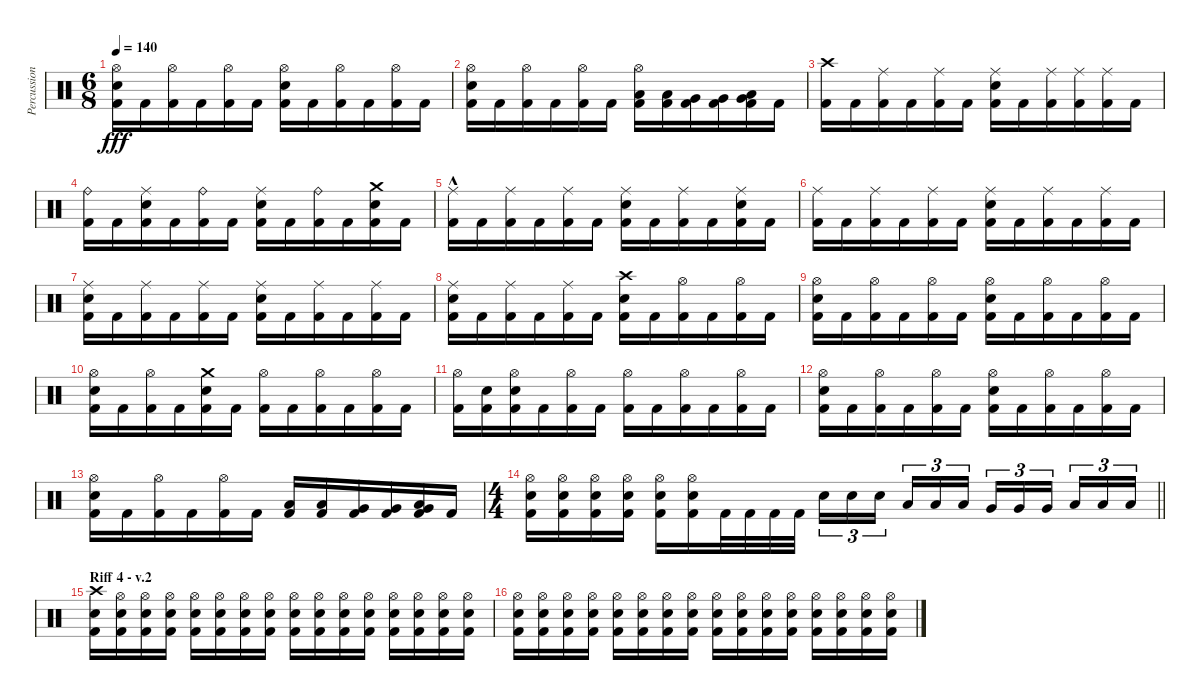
\track ("Percussion" "Percussion") {instrument percussion}
\staff {score}
\articulation defaults
\ts (6 8)
\tempo 140
\clef neutral
\ks c
("Hi-Hat (open)" "Electric Snare (hit)" "Kick (hit) 2").16{dy fff} "Kick (hit) 2".16 ("Hi-Hat (open)" "Kick (hit) 2").16 "Kick (hit) 2".16 ("Hi-Hat (open)" "Kick (hit) 2").16 "Kick (hit) 2".16 ("Hi-Hat (open)" "Electric Snare (hit)" "Kick (hit) 2").16 "Kick (hit) 2".16 ("Hi-Hat (open)" "Kick (hit) 2").16 "Kick (hit) 2".16 ("Hi-Hat (open)" "Kick (hit) 2").16 "Kick (hit) 2".16 |
("Hi-Hat (open)" "Electric Snare (hit)" "Kick (hit) 2").16 "Kick (hit) 2".16 ("Hi-Hat (open)" "Kick (hit) 2").16 "Kick (hit) 2".16 ("Hi-Hat (open)" "Kick (hit) 2").16 "Kick (hit) 2".16 ("Hi-Hat (open)" "Low Tom (hit)" "Kick (hit) 2").16 ("Low Tom (hit)" "Kick (hit) 2").16 ("Very Low Tom (hit)" "Kick (hit) 2").16 ("Very Low Tom (hit)" "Kick (hit) 2").16 ("Very Low Tom (hit)" "Low Floor Tom (hit)" "Kick (hit) 2").16 "Kick (hit) 2".16 |
("Crash high (hit)" "Kick (hit) 2").16 "Kick (hit) 2".16 ("Ride (middle)" "Kick (hit) 2").16 "Kick (hit) 2".16 ("Ride (middle)" "Kick (hit) 2").16 "Kick (hit) 2".16 ("Ride (middle)" "Electric Snare (hit)" "Kick (hit) 2").16 "Kick (hit) 2".16 ("Ride (middle)" "Kick (hit) 2").16 ("Ride (middle)" "Kick (hit) 2").16 ("Ride (middle)" "Kick (hit) 2").16 "Kick (hit) 2".16 |
("Ride (bell)" "Kick (hit) 2").16 "Kick (hit) 2".16 ("Ride (middle)" "Electric Snare (hit)" "Kick (hit) 2").16 "Kick (hit) 2".16 ("Ride (bell)" "Kick (hit) 2").16 "Kick (hit) 2".16 ("Ride (middle)" "Electric Snare (hit)" "Kick (hit) 2").16 "Kick (hit) 2".16 ("Ride (bell)" "Kick (hit) 2").16 "Kick (hit) 2".16 ("Crash medium (hit)" "Electric Snare (hit)" "Kick (hit) 2").16 "Kick (hit) 2".16 |
("Ride (middle)"{hac} "Kick (hit) 2").16 "Kick (hit) 2".16 ("Ride (middle)" "Kick (hit) 2").16 "Kick (hit) 2".16 ("Ride (middle)" "Kick (hit) 2").16 "Kick (hit) 2".16 ("Ride (middle)" "Electric Snare (hit)" "Kick (hit) 2").16 "Kick (hit) 2".16 ("Ride (middle)" "Kick (hit) 2").16 "Kick (hit) 2".16 ("Ride (middle)" "Electric Snare (hit)" "Kick (hit) 2").16 "Kick (hit) 2".16 |
("Ride (middle)" "Kick (hit) 2").16 "Kick (hit) 2".16 ("Ride (middle)" "Kick (hit) 2").16 "Kick (hit) 2".16 ("Ride (middle)" "Kick (hit) 2").16 "Kick (hit) 2".16 ("Ride (middle)" "Electric Snare (hit)" "Kick (hit) 2").16 "Kick (hit) 2".16 ("Ride (middle)" "Kick (hit) 2").16 "Kick (hit) 2".16 ("Ride (middle)" "Kick (hit) 2").16 "Kick (hit) 2".16 |
("Ride (middle)" "Electric Snare (hit)" "Kick (hit) 2").16 "Kick (hit) 2".16 ("Ride (middle)" "Kick (hit) 2").16 "Kick (hit) 2".16 ("Ride (middle)" "Kick (hit) 2").16 "Kick (hit) 2".16 ("Ride (middle)" "Electric Snare (hit)" "Kick (hit) 2").16 "Kick (hit) 2".16 ("Ride (middle)" "Kick (hit) 2").16 "Kick (hit) 2".16 ("Ride (middle)" "Kick (hit) 2").16 "Kick (hit) 2".16 |
("Ride (middle)" "Electric Snare (hit)" "Kick (hit) 2").16 "Kick (hit) 2".16 ("Ride (middle)" "Kick (hit) 2").16 "Kick (hit) 2".16 ("Ride (middle)" "Kick (hit) 2").16 "Kick (hit) 2".16 ("Crash high (hit)" "Electric Snare (hit)" "Kick (hit) 2").16 "Kick (hit) 2".16 ("Hi-Hat (open)" "Kick (hit) 2").16 "Kick (hit) 2".16 ("Hi-Hat (open)" "Kick (hit) 2").16 "Kick (hit) 2".16 |
("Hi-Hat (open)" "Electric Snare (hit)" "Kick (hit) 2").16 "Kick (hit) 2".16 ("Hi-Hat (open)" "Kick (hit) 2").16 "Kick (hit) 2".16 ("Hi-Hat (open)" "Kick (hit) 2").16 "Kick (hit) 2".16 ("Hi-Hat (open)" "Electric Snare (hit)" "Kick (hit) 2").16 "Kick (hit) 2".16 ("Hi-Hat (open)" "Kick (hit) 2").16 "Kick (hit) 2".16 ("Hi-Hat (open)" "Kick (hit) 2").16 "Kick (hit) 2".16 |
("Hi-Hat (open)" "Electric Snare (hit)" "Kick (hit) 2").16 "Kick (hit) 2".16 ("Hi-Hat (open)" "Kick (hit) 2").16 "Kick (hit) 2".16 ("Crash medium (hit)" "Electric Snare (hit)" "Kick (hit) 2").16 "Kick (hit) 2".16 ("Hi-Hat (open)" "Kick (hit) 2").16 "Kick (hit) 2".16 ("Hi-Hat (open)" "Kick (hit) 2").16 "Kick (hit) 2".16 ("Hi-Hat (open)" "Kick (hit) 2").16 "Kick (hit) 2".16 |
("Hi-Hat (open)" "Kick (hit) 2").16 ("Electric Snare (hit)" "Kick (hit) 2").16 ("Hi-Hat (open)" "Electric Snare (hit)" "Kick (hit) 2").16 "Kick (hit) 2".16 ("Hi-Hat (open)" "Kick (hit) 2").16 "Kick (hit) 2".16 ("Hi-Hat (open)" "Kick (hit) 2").16 "Kick (hit) 2".16 ("Hi-Hat (open)" "Kick (hit) 2").16 "Kick (hit) 2".16 ("Hi-Hat (open)" "Kick (hit) 2").16 "Kick (hit) 2".16 |
("Hi-Hat (open)" "Electric Snare (hit)" "Kick (hit) 2").16 "Kick (hit) 2".16 ("Hi-Hat (open)" "Kick (hit) 2").16 "Kick (hit) 2".16 ("Hi-Hat (open)" "Kick (hit) 2").16 "Kick (hit) 2".16 ("Hi-Hat (open)" "Electric Snare (hit)" "Kick (hit) 2").16 "Kick (hit) 2".16 ("Hi-Hat (open)" "Kick (hit) 2").16 "Kick (hit) 2".16 ("Hi-Hat (open)" "Kick (hit) 2").16 "Kick (hit) 2".16 |
("Hi-Hat (open)" "Electric Snare (hit)" "Kick (hit) 2").16 "Kick (hit) 2".16 ("Hi-Hat (open)" "Kick (hit) 2").16 "Kick (hit) 2".16 ("Hi-Hat (open)" "Kick (hit) 2").16 "Kick (hit) 2".16 ("Low Tom (hit)" "Kick (hit) 2").16 ("Low Tom (hit)" "Kick (hit) 2").16 ("Very Low Tom (hit)" "Kick (hit) 2").16 ("Very Low Tom (hit)" "Kick (hit) 2").16 ("Very Low Tom (hit)" "Low Floor Tom (hit)" "Kick (hit) 2").16 "Kick (hit) 2".16 |
\ts (4 4)
\barLineRight lightlight
("Hi-Hat (open)" "Electric Snare (hit)" "Kick (hit) 2").16 ("Hi-Hat (open)" "Electric Snare (hit)" "Kick (hit) 2").16 ("Hi-Hat (open)" "Electric Snare (hit)" "Kick (hit) 2").16 ("Hi-Hat (open)" "Electric Snare (hit)" "Kick (hit) 2").16 ("Hi-Hat (open)" "Electric Snare (hit)" "Kick (hit) 2").16 ("Hi-Hat (open)" "Electric Snare (hit)" "Kick (hit) 2").16 "Kick (hit) 2".32 "Kick (hit) 2".32 "Kick (hit) 2".32 "Kick (hit) 2".32 "Electric Snare (hit)".16{tu (3 2)} "Electric Snare (hit)".16{tu (3 2)} "Electric Snare (hit)".16{tu (3 2) beam splitsecondary} "Low Tom (hit)".16{tu (3 2)} "Low Tom (hit)".16{tu (3 2)} "Low Tom (hit)".16{tu (3 2)} "Very Low Tom (hit)".16{tu (3 2)} "Very Low Tom (hit)".16{tu (3 2)} "Very Low Tom (hit)".16{tu (3 2) beam splitsecondary} "Low Floor Tom (hit)".16{tu (3 2)} "Low Floor Tom (hit)".16{tu (3 2)} "Low Floor Tom (hit)".16{tu (3 2)} |
\section ("" "Riff 4 - v.2")
("Crash high (hit)" "Electric Snare (hit)" "Kick (hit) 2").16 ("Hi-Hat (open)" "Electric Snare (hit)" "Kick (hit) 2").16 ("Hi-Hat (open)" "Electric Snare (hit)" "Kick (hit) 2").16 ("Hi-Hat (open)" "Electric Snare (hit)" "Kick (hit) 2").16 ("Hi-Hat (open)" "Electric Snare (hit)" "Kick (hit) 2").16 ("Hi-Hat (open)" "Electric Snare (hit)" "Kick (hit) 2").16 ("Hi-Hat (open)" "Electric Snare (hit)" "Kick (hit) 2").16 ("Hi-Hat (open)" "Electric Snare (hit)" "Kick (hit) 2").16 ("Hi-Hat (open)" "Electric Snare (hit)" "Kick (hit) 2").16 ("Hi-Hat (open)" "Electric Snare (hit)" "Kick (hit) 2").16 ("Hi-Hat (open)" "Electric Snare (hit)" "Kick (hit) 2").16 ("Hi-Hat (open)" "Electric Snare (hit)" "Kick (hit) 2").16 ("Hi-Hat (open)" "Electric Snare (hit)" "Kick (hit) 2").16 ("Hi-Hat (open)" "Electric Snare (hit)" "Kick (hit) 2").16 ("Hi-Hat (open)" "Electric Snare (hit)" "Kick (hit) 2").16 ("Hi-Hat (open)" "Electric Snare (hit)" "Kick (hit) 2").16 |
("Hi-Hat (open)" "Electric Snare (hit)" "Kick (hit) 2").16 ("Hi-Hat (open)" "Electric Snare (hit)" "Kick (hit) 2").16 ("Hi-Hat (open)" "Electric Snare (hit)" "Kick (hit) 2").16 ("Hi-Hat (open)" "Electric Snare (hit)" "Kick (hit) 2").16 ("Hi-Hat (open)" "Electric Snare (hit)" "Kick (hit) 2").16 ("Hi-Hat (open)" "Electric Snare (hit)" "Kick (hit) 2").16 ("Hi-Hat (open)" "Electric Snare (hit)" "Kick (hit) 2").16 ("Hi-Hat (open)" "Electric Snare (hit)" "Kick (hit) 2").16 ("Hi-Hat (open)" "Electric Snare (hit)" "Kick (hit) 2").16 ("Hi-Hat (open)" "Electric Snare (hit)" "Kick (hit) 2").16 ("Hi-Hat (open)" "Electric Snare (hit)" "Kick (hit) 2").16 ("Hi-Hat (open)" "Electric Snare (hit)" "Kick (hit) 2").16 ("Hi-Hat (open)" "Electric Snare (hit)" "Kick (hit) 2").16 ("Hi-Hat (open)" "Electric Snare (hit)" "Kick (hit) 2").16 ("Hi-Hat (open)" "Electric Snare (hit)" "Kick (hit) 2").16 ("Hi-Hat (open)" "Electric Snare (hit)" "Kick (hit) 2").16
